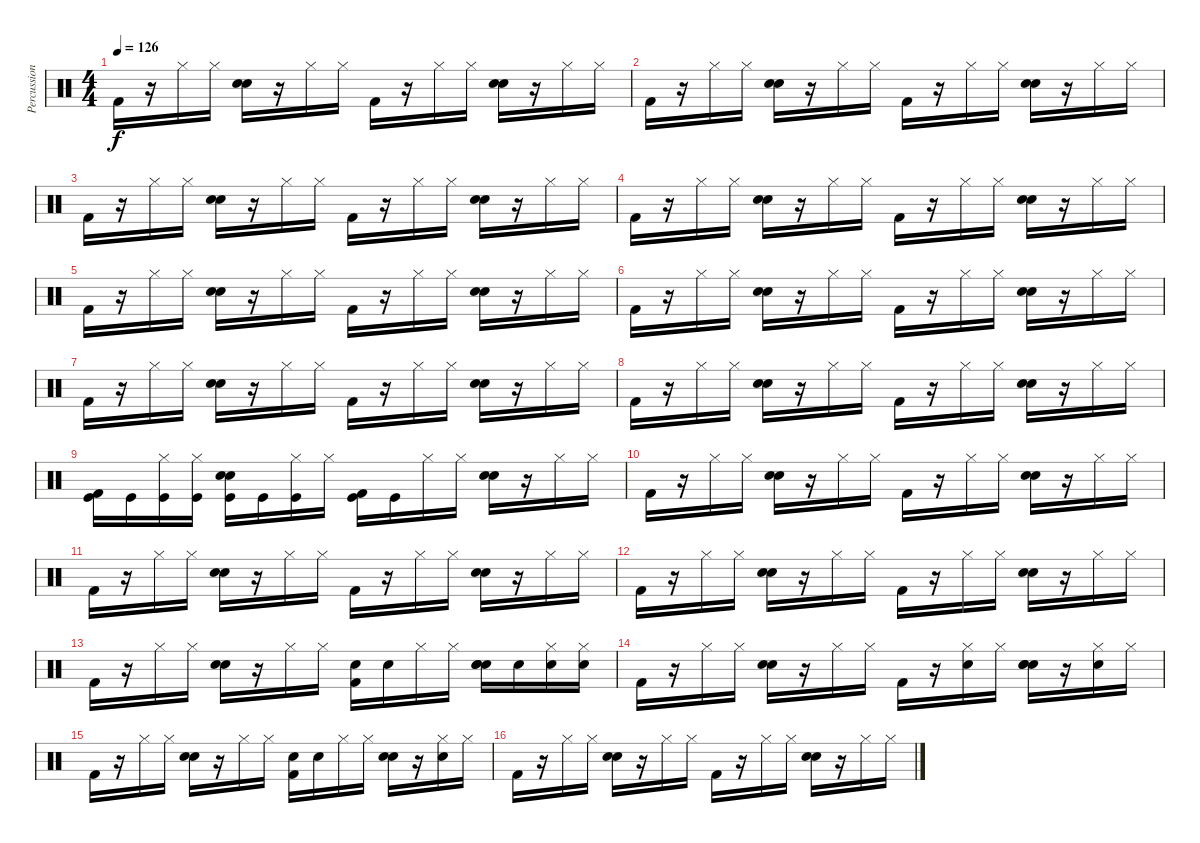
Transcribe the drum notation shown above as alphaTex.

\track ("Percussion" "Percussion") {instrument percussion}
\staff {score}
\articulation defaults
\ts (4 4)
\tempo 126
\clef neutral
\ks c "Kick (hit) 2".16{dy f}
r.16 "Hi-Hat (closed)".16 "Hi-Hat (closed)".16 ("Hand Clap (hit)" "Electric Snare (hit)").16 r.16 "Hi-Hat (closed)".16 "Hi-Hat (closed)".16 "Kick (hit) 2".16 r.16 "Hi-Hat (closed)".16 "Hi-Hat (closed)".16 ("Hand Clap (hit)" "Electric Snare (hit)").16 r.16 "Hi-Hat (closed)".16 "Hi-Hat (closed)".16 |
"Kick (hit) 2".16 r.16 "Hi-Hat (closed)".16 "Hi-Hat (closed)".16 ("Hand Clap (hit)" "Electric Snare (hit)").16 r.16 "Hi-Hat (closed)".16 "Hi-Hat (closed)".16 "Kick (hit) 2".16 r.16 "Hi-Hat (closed)".16 "Hi-Hat (closed)".16 ("Hand Clap (hit)" "Electric Snare (hit)").16 r.16 "Hi-Hat (closed)".16 "Hi-Hat (closed)".16 |
"Kick (hit) 2".16 r.16 "Hi-Hat (closed)".16 "Hi-Hat (closed)".16 ("Hand Clap (hit)" "Electric Snare (hit)").16 r.16 "Hi-Hat (closed)".16 "Hi-Hat (closed)".16 "Kick (hit) 2".16 r.16 "Hi-Hat (closed)".16 "Hi-Hat (closed)".16 ("Hand Clap (hit)" "Electric Snare (hit)").16 r.16 "Hi-Hat (closed)".16 "Hi-Hat (closed)".16 |
"Kick (hit) 2".16 r.16 "Hi-Hat (closed)".16 "Hi-Hat (closed)".16 ("Hand Clap (hit)" "Electric Snare (hit)").16 r.16 "Hi-Hat (closed)".16 "Hi-Hat (closed)".16 "Kick (hit) 2".16 r.16 "Hi-Hat (closed)".16 "Hi-Hat (closed)".16 ("Hand Clap (hit)" "Electric Snare (hit)").16 r.16 "Hi-Hat (closed)".16 "Hi-Hat (closed)".16 |
"Kick (hit) 2".16 r.16 "Hi-Hat (closed)".16 "Hi-Hat (closed)".16 ("Hand Clap (hit)" "Electric Snare (hit)").16 r.16 "Hi-Hat (closed)".16 "Hi-Hat (closed)".16 "Kick (hit) 2".16 r.16 "Hi-Hat (closed)".16 "Hi-Hat (closed)".16 ("Hand Clap (hit)" "Electric Snare (hit)").16 r.16 "Hi-Hat (closed)".16 "Hi-Hat (closed)".16 |
"Kick (hit) 2".16 r.16 "Hi-Hat (closed)".16 "Hi-Hat (closed)".16 ("Hand Clap (hit)" "Electric Snare (hit)").16 r.16 "Hi-Hat (closed)".16 "Hi-Hat (closed)".16 "Kick (hit) 2".16 r.16 "Hi-Hat (closed)".16 "Hi-Hat (closed)".16 ("Hand Clap (hit)" "Electric Snare (hit)").16 r.16 "Hi-Hat (closed)".16 "Hi-Hat (closed)".16 |
"Kick (hit) 2".16 r.16 "Hi-Hat (closed)".16 "Hi-Hat (closed)".16 ("Hand Clap (hit)" "Electric Snare (hit)").16 r.16 "Hi-Hat (closed)".16 "Hi-Hat (closed)".16 "Kick (hit) 2".16 r.16 "Hi-Hat (closed)".16 "Hi-Hat (closed)".16 ("Hand Clap (hit)" "Electric Snare (hit)").16 r.16 "Hi-Hat (closed)".16 "Hi-Hat (closed)".16 |
"Kick (hit) 2".16 r.16 "Hi-Hat (closed)".16 "Hi-Hat (closed)".16 ("Hand Clap (hit)" "Electric Snare (hit)").16 r.16 "Hi-Hat (closed)".16 "Hi-Hat (closed)".16 "Kick (hit) 2".16 r.16 "Hi-Hat (closed)".16 "Hi-Hat (closed)".16 ("Hand Clap (hit)" "Electric Snare (hit)").16 r.16 "Hi-Hat (closed)".16 "Hi-Hat (closed)".16 |
("Kick (hit)" "Kick (hit) 2").16 "Kick (hit)".16 ("Hi-Hat (closed)" "Kick (hit)").16 ("Hi-Hat (closed)" "Kick (hit)").16 ("Kick (hit)" "Hand Clap (hit)" "Electric Snare (hit)").16 "Kick (hit)".16 ("Hi-Hat (closed)" "Kick (hit)").16 "Hi-Hat (closed)".16 ("Kick (hit)" "Kick (hit) 2").16 "Kick (hit)".16 "Hi-Hat (closed)".16 "Hi-Hat (closed)".16 ("Hand Clap (hit)" "Electric Snare (hit)").16 r.16 "Hi-Hat (closed)".16 "Hi-Hat (closed)".16 |
"Kick (hit) 2".16 r.16 "Hi-Hat (closed)".16 "Hi-Hat (closed)".16 ("Hand Clap (hit)" "Electric Snare (hit)").16 r.16 "Hi-Hat (closed)".16 "Hi-Hat (closed)".16 "Kick (hit) 2".16 r.16 "Hi-Hat (closed)".16 "Hi-Hat (closed)".16 ("Hand Clap (hit)" "Electric Snare (hit)").16 r.16 "Hi-Hat (closed)".16 "Hi-Hat (closed)".16 |
"Kick (hit) 2".16 r.16 "Hi-Hat (closed)".16 "Hi-Hat (closed)".16 ("Hand Clap (hit)" "Electric Snare (hit)").16 r.16 "Hi-Hat (closed)".16 "Hi-Hat (closed)".16 "Kick (hit) 2".16 r.16 "Hi-Hat (closed)".16 "Hi-Hat (closed)".16 ("Hand Clap (hit)" "Electric Snare (hit)").16 r.16 "Hi-Hat (closed)".16 "Hi-Hat (closed)".16 |
"Kick (hit) 2".16 r.16 "Hi-Hat (closed)".16 "Hi-Hat (closed)".16 ("Hand Clap (hit)" "Electric Snare (hit)").16 r.16 "Hi-Hat (closed)".16 "Hi-Hat (closed)".16 "Kick (hit) 2".16 r.16 "Hi-Hat (closed)".16 "Hi-Hat (closed)".16 ("Hand Clap (hit)" "Electric Snare (hit)").16 r.16 "Hi-Hat (closed)".16 "Hi-Hat (closed)".16 |
"Kick (hit) 2".16 r.16 "Hi-Hat (closed)".16 "Hi-Hat (closed)".16 ("Hand Clap (hit)" "Electric Snare (hit)").16 r.16 "Hi-Hat (closed)".16 "Hi-Hat (closed)".16 ("Snare (hit) 2" "Kick (hit) 2").16 "Snare (hit) 2".16 "Hi-Hat (closed)".16 "Hi-Hat (closed)".16 ("Snare (hit) 2" "Hand Clap (hit)" "Electric Snare (hit)").16 "Snare (hit) 2".16 ("Hi-Hat (closed)" "Snare (hit) 2").16 ("Hi-Hat (closed)" "Snare (hit) 2").16 |
"Kick (hit) 2".16 r.16 "Hi-Hat (closed)".16 "Hi-Hat (closed)".16 ("Hand Clap (hit)" "Electric Snare (hit)").16 r.16 "Hi-Hat (closed)".16 "Hi-Hat (closed)".16 "Kick (hit) 2".16 r.16 ("Hi-Hat (closed)" "Snare (hit) 2").16 "Hi-Hat (closed)".16 ("Snare (hit) 2" "Hand Clap (hit)" "Electric Snare (hit)").16 r.16 ("Hi-Hat (closed)" "Snare (hit) 2").16 "Hi-Hat (closed)".16 |
"Kick (hit) 2".16 r.16 "Hi-Hat (closed)".16 "Hi-Hat (closed)".16 ("Hand Clap (hit)" "Electric Snare (hit)").16 r.16 "Hi-Hat (closed)".16 "Hi-Hat (closed)".16 ("Snare (hit) 2" "Kick (hit) 2").16 "Snare (hit) 2".16 "Hi-Hat (closed)".16 "Hi-Hat (closed)".16 ("Hand Clap (hit)" "Electric Snare (hit)").16 r.16 ("Hi-Hat (closed)" "Snare (hit) 2").16 "Hi-Hat (closed)".16 |
"Kick (hit) 2".16 r.16 "Hi-Hat (closed)".16 "Hi-Hat (closed)".16 ("Hand Clap (hit)" "Electric Snare (hit)").16 r.16 "Hi-Hat (closed)".16 "Hi-Hat (closed)".16 "Kick (hit) 2".16 r.16 "Hi-Hat (closed)".16 "Hi-Hat (closed)".16 ("Hand Clap (hit)" "Electric Snare (hit)").16 r.16 "Hi-Hat (closed)".16 "Hi-Hat (closed)".16
